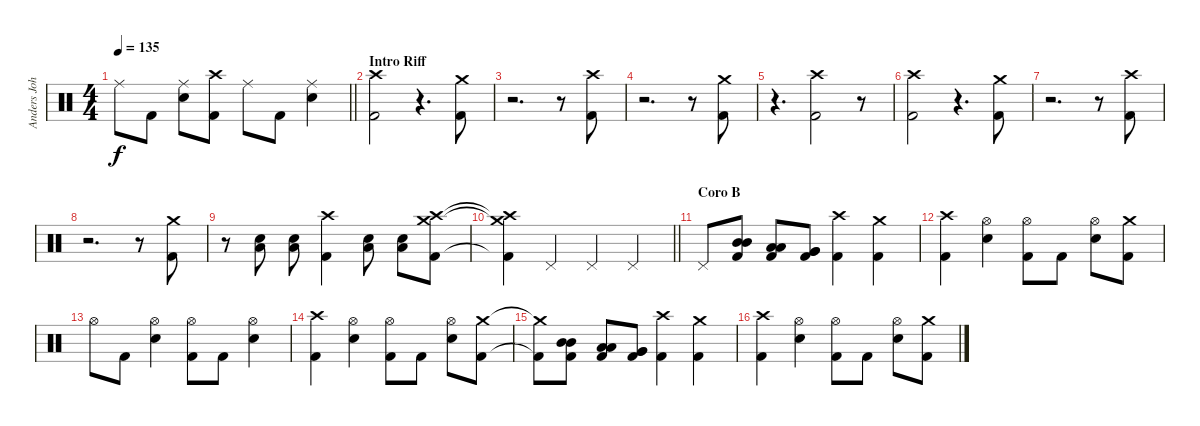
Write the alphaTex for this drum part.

\track ("Anders Johansson" "Anders Joh") {instrument percussion}
\staff {score}
\articulation defaults
\ts (4 4)
\tempo 135
\clef neutral
\barLineRight lightlight
\ks c "Ride (middle)".8{dy f} "Kick (hit) 2".8
("Ride (middle)" "Snare (hit) 2").8 ("Crash high (hit)" "Kick (hit) 2").8 "Ride (middle)".8 "Kick (hit) 2".8 ("Ride (middle)" "Snare (hit) 2").4 |
\section ("" "Intro Riff")
("Crash high (hit)" "Kick (hit) 2").2 r.4{d} ("Crash medium (hit)" "Kick (hit) 2").8 |
r.2{d} r.8 ("Crash high (hit)" "Kick (hit) 2").8 |
r.2{d} r.8 ("Crash medium (hit)" "Kick (hit) 2").8 |
r.4{d} ("Crash high (hit)" "Kick (hit) 2").2 r.8 |
("Crash high (hit)" "Kick (hit) 2").2 r.4{d} ("Crash medium (hit)" "Kick (hit) 2").8 |
r.2{d} r.8 ("Crash high (hit)" "Kick (hit) 2").8 |
r.2{d} r.8 ("Crash medium (hit)" "Kick (hit) 2").8 |
r.8 ("Snare (hit) 2" "Low Tom (hit)").8 ("Snare (hit) 2" "Low Tom (hit)").8 ("Crash high (hit)" "Kick (hit) 2").4 ("Snare (hit) 2" "Low Tom (hit)").8 ("Snare (hit) 2" "Low Tom (hit)").8 ("Crash high (hit)" "Crash medium (hit)" "Kick (hit) 2").8 |
\barLineRight lightlight
("Crash high (hit)"{t} "Crash medium (hit)"{t} "Kick (hit) 2"{t}).4 "Pedal Hi-Hat (hit)".4 "Pedal Hi-Hat (hit)".4 "Pedal Hi-Hat (hit)".4 |
\section ("" "Coro B")
"Pedal Hi-Hat (hit)".8 ("Mid Tom (hit)" "Mid Tom (hit)" "Kick (hit) 2").8 ("Low Tom (hit)" "Low Tom (hit)" "Kick (hit) 2").8 ("Very Low Tom (hit)" "Very Low Tom (hit)" "Kick (hit) 2").8 ("Crash high (hit)" "Kick (hit) 2").4 ("Crash medium (hit)" "Kick (hit) 2").4 |
("Crash high (hit)" "Kick (hit) 2").4 ("Hi-Hat (open)" "Snare (hit) 2").4 ("Hi-Hat (open)" "Kick (hit) 2").8 "Kick (hit) 2".8 ("Hi-Hat (open)" "Snare (hit) 2").8 ("Crash medium (hit)" "Kick (hit) 2").8 |
"Hi-Hat (open)".8 "Kick (hit) 2".8 ("Hi-Hat (open)" "Snare (hit) 2").4 ("Hi-Hat (open)" "Kick (hit) 2").8 "Kick (hit) 2".8 ("Hi-Hat (open)" "Snare (hit) 2").4 |
("Crash high (hit)" "Kick (hit) 2").4 ("Hi-Hat (open)" "Snare (hit) 2").4 ("Hi-Hat (open)" "Kick (hit) 2").8 "Kick (hit) 2".8 ("Hi-Hat (open)" "Snare (hit) 2").8 ("Crash medium (hit)" "Kick (hit) 2").8 |
("Crash medium (hit)"{t} "Kick (hit) 2"{t}).8 ("Mid Tom (hit)" "Mid Tom (hit)" "Kick (hit) 2").8 ("Low Tom (hit)" "Low Tom (hit)" "Kick (hit) 2").8 ("Very Low Tom (hit)" "Very Low Tom (hit)" "Kick (hit) 2").8 ("Crash high (hit)" "Kick (hit) 2").4 ("Crash medium (hit)" "Kick (hit) 2").4 |
("Crash high (hit)" "Kick (hit) 2").4 ("Hi-Hat (open)" "Snare (hit) 2").4 ("Hi-Hat (open)" "Kick (hit) 2").8 "Kick (hit) 2".8 ("Hi-Hat (open)" "Snare (hit) 2").8 ("Crash medium (hit)" "Kick (hit) 2").8
